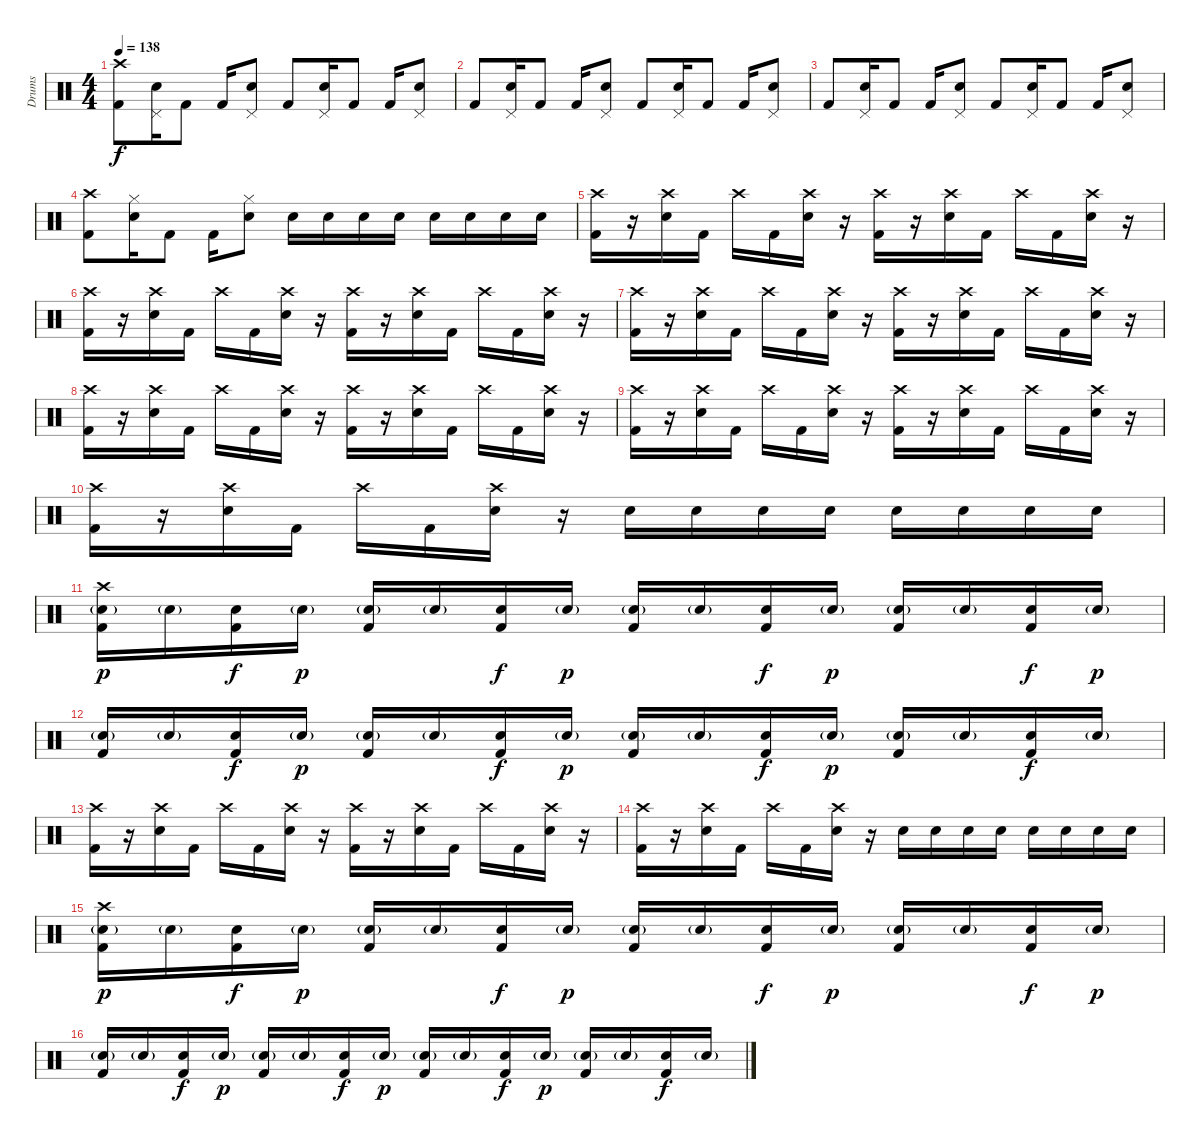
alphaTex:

\track ("Drums" "Drums") {instrument percussion}
\staff {score}
\articulation defaults
\ts (4 4)
\tempo 138
\clef neutral
\ks c
("Crash high (hit)" "Kick (hit) 2").8{dy f} ("Pedal Hi-Hat (hit)" "Snare (hit) 2").16 "Kick (hit) 2".8 "Kick (hit) 2".16 ("Pedal Hi-Hat (hit)" "Snare (hit) 2").8 "Kick (hit) 2".8 ("Pedal Hi-Hat (hit)" "Snare (hit) 2").16 "Kick (hit) 2".8 "Kick (hit) 2".16 ("Pedal Hi-Hat (hit)" "Snare (hit) 2").8 |
"Kick (hit) 2".8 ("Pedal Hi-Hat (hit)" "Snare (hit) 2").16 "Kick (hit) 2".8 "Kick (hit) 2".16 ("Pedal Hi-Hat (hit)" "Snare (hit) 2").8 "Kick (hit) 2".8 ("Pedal Hi-Hat (hit)" "Snare (hit) 2").16 "Kick (hit) 2".8 "Kick (hit) 2".16 ("Pedal Hi-Hat (hit)" "Snare (hit) 2").8 |
"Kick (hit) 2".8 ("Pedal Hi-Hat (hit)" "Snare (hit) 2").16 "Kick (hit) 2".8 "Kick (hit) 2".16 ("Pedal Hi-Hat (hit)" "Snare (hit) 2").8 "Kick (hit) 2".8 ("Pedal Hi-Hat (hit)" "Snare (hit) 2").16 "Kick (hit) 2".8 "Kick (hit) 2".16 ("Pedal Hi-Hat (hit)" "Snare (hit) 2").8 |
("Crash high (hit)" "Kick (hit) 2").8 ("Hi-Hat (closed)" "Snare (hit) 2").16 "Kick (hit) 2".8 "Kick (hit) 2".16 ("Hi-Hat (closed)" "Snare (hit) 2").8 "Snare (hit) 2".16 "Snare (hit) 2".16 "Snare (hit) 2".16 "Snare (hit) 2".16 "Snare (hit) 2".16 "Snare (hit) 2".16 "Snare (hit) 2".16 "Snare (hit) 2".16 |
("Crash high (hit)" "Kick (hit) 2").16 r.16 ("Crash high (hit)" "Snare (hit) 2").16 "Kick (hit) 2".16 "Crash high (hit)".16 "Kick (hit) 2".16 ("Crash high (hit)" "Snare (hit) 2").16 r.16 ("Crash high (hit)" "Kick (hit) 2").16 r.16 ("Crash high (hit)" "Snare (hit) 2").16 "Kick (hit) 2".16 "Crash high (hit)".16 "Kick (hit) 2".16 ("Crash high (hit)" "Snare (hit) 2").16 r.16 |
("Crash high (hit)" "Kick (hit) 2").16 r.16 ("Crash high (hit)" "Snare (hit) 2").16 "Kick (hit) 2".16 "Crash high (hit)".16 "Kick (hit) 2".16 ("Crash high (hit)" "Snare (hit) 2").16 r.16 ("Crash high (hit)" "Kick (hit) 2").16 r.16 ("Crash high (hit)" "Snare (hit) 2").16 "Kick (hit) 2".16 "Crash high (hit)".16 "Kick (hit) 2".16 ("Crash high (hit)" "Snare (hit) 2").16 r.16 |
("Crash high (hit)" "Kick (hit) 2").16 r.16 ("Crash high (hit)" "Snare (hit) 2").16 "Kick (hit) 2".16 "Crash high (hit)".16 "Kick (hit) 2".16 ("Crash high (hit)" "Snare (hit) 2").16 r.16 ("Crash high (hit)" "Kick (hit) 2").16 r.16 ("Crash high (hit)" "Snare (hit) 2").16 "Kick (hit) 2".16 "Crash high (hit)".16 "Kick (hit) 2".16 ("Crash high (hit)" "Snare (hit) 2").16 r.16 |
("Crash high (hit)" "Kick (hit) 2").16 r.16 ("Crash high (hit)" "Snare (hit) 2").16 "Kick (hit) 2".16 "Crash high (hit)".16 "Kick (hit) 2".16 ("Crash high (hit)" "Snare (hit) 2").16 r.16 ("Crash high (hit)" "Kick (hit) 2").16 r.16 ("Crash high (hit)" "Snare (hit) 2").16 "Kick (hit) 2".16 "Crash high (hit)".16 "Kick (hit) 2".16 ("Crash high (hit)" "Snare (hit) 2").16 r.16 |
("Crash high (hit)" "Kick (hit) 2").16 r.16 ("Crash high (hit)" "Snare (hit) 2").16 "Kick (hit) 2".16 "Crash high (hit)".16 "Kick (hit) 2".16 ("Crash high (hit)" "Snare (hit) 2").16 r.16 ("Crash high (hit)" "Kick (hit) 2").16 r.16 ("Crash high (hit)" "Snare (hit) 2").16 "Kick (hit) 2".16 "Crash high (hit)".16 "Kick (hit) 2".16 ("Crash high (hit)" "Snare (hit) 2").16 r.16 |
("Crash high (hit)" "Kick (hit) 2").16 r.16 ("Crash high (hit)" "Snare (hit) 2").16 "Kick (hit) 2".16 "Crash high (hit)".16 "Kick (hit) 2".16 ("Crash high (hit)" "Snare (hit) 2").16 r.16 "Snare (hit) 2".16 "Snare (hit) 2".16 "Snare (hit) 2".16 "Snare (hit) 2".16 "Snare (hit) 2".16 "Snare (hit) 2".16 "Snare (hit) 2".16 "Snare (hit) 2".16 |
("Crash high (hit)" "Snare (hit) 2"{g} "Kick (hit) 2").16{dy p} "Snare (hit) 2"{g}.16 ("Snare (hit) 2" "Kick (hit) 2").16{dy f} "Snare (hit) 2"{g}.16{dy p} ("Snare (hit) 2"{g} "Kick (hit) 2").16 "Snare (hit) 2"{g}.16 ("Snare (hit) 2" "Kick (hit) 2").16{dy f} "Snare (hit) 2"{g}.16{dy p} ("Snare (hit) 2"{g} "Kick (hit) 2").16 "Snare (hit) 2"{g}.16 ("Snare (hit) 2" "Kick (hit) 2").16{dy f} "Snare (hit) 2"{g}.16{dy p} ("Snare (hit) 2"{g} "Kick (hit) 2").16 "Snare (hit) 2"{g}.16 ("Snare (hit) 2" "Kick (hit) 2").16{dy f} "Snare (hit) 2"{g}.16{dy p} |
("Snare (hit) 2"{g} "Kick (hit) 2").16 "Snare (hit) 2"{g}.16 ("Snare (hit) 2" "Kick (hit) 2").16{dy f} "Snare (hit) 2"{g}.16{dy p} ("Snare (hit) 2"{g} "Kick (hit) 2").16 "Snare (hit) 2"{g}.16 ("Snare (hit) 2" "Kick (hit) 2").16{dy f} "Snare (hit) 2"{g}.16{dy p} ("Snare (hit) 2"{g} "Kick (hit) 2").16 "Snare (hit) 2"{g}.16 ("Snare (hit) 2" "Kick (hit) 2").16{dy f} "Snare (hit) 2"{g}.16{dy p} ("Snare (hit) 2"{g} "Kick (hit) 2").16 "Snare (hit) 2"{g}.16 ("Snare (hit) 2" "Kick (hit) 2").16{dy f} "Snare (hit) 2"{g}.16 |
("Crash high (hit)" "Kick (hit) 2").16 r.16 ("Crash high (hit)" "Snare (hit) 2").16 "Kick (hit) 2".16 "Crash high (hit)".16 "Kick (hit) 2".16 ("Crash high (hit)" "Snare (hit) 2").16 r.16 ("Crash high (hit)" "Kick (hit) 2").16 r.16 ("Crash high (hit)" "Snare (hit) 2").16 "Kick (hit) 2".16 "Crash high (hit)".16 "Kick (hit) 2".16 ("Crash high (hit)" "Snare (hit) 2").16 r.16 |
("Crash high (hit)" "Kick (hit) 2").16 r.16 ("Crash high (hit)" "Snare (hit) 2").16 "Kick (hit) 2".16 "Crash high (hit)".16 "Kick (hit) 2".16 ("Crash high (hit)" "Snare (hit) 2").16 r.16 "Snare (hit) 2".16 "Snare (hit) 2".16 "Snare (hit) 2".16 "Snare (hit) 2".16 "Snare (hit) 2".16 "Snare (hit) 2".16 "Snare (hit) 2".16 "Snare (hit) 2".16 |
("Crash high (hit)" "Snare (hit) 2"{g} "Kick (hit) 2").16{dy p} "Snare (hit) 2"{g}.16 ("Snare (hit) 2" "Kick (hit) 2").16{dy f} "Snare (hit) 2"{g}.16{dy p} ("Snare (hit) 2"{g} "Kick (hit) 2").16 "Snare (hit) 2"{g}.16 ("Snare (hit) 2" "Kick (hit) 2").16{dy f} "Snare (hit) 2"{g}.16{dy p} ("Snare (hit) 2"{g} "Kick (hit) 2").16 "Snare (hit) 2"{g}.16 ("Snare (hit) 2" "Kick (hit) 2").16{dy f} "Snare (hit) 2"{g}.16{dy p} ("Snare (hit) 2"{g} "Kick (hit) 2").16 "Snare (hit) 2"{g}.16 ("Snare (hit) 2" "Kick (hit) 2").16{dy f} "Snare (hit) 2"{g}.16{dy p} |
("Snare (hit) 2"{g} "Kick (hit) 2").16 "Snare (hit) 2"{g}.16 ("Snare (hit) 2" "Kick (hit) 2").16{dy f} "Snare (hit) 2"{g}.16{dy p} ("Snare (hit) 2"{g} "Kick (hit) 2").16 "Snare (hit) 2"{g}.16 ("Snare (hit) 2" "Kick (hit) 2").16{dy f} "Snare (hit) 2"{g}.16{dy p} ("Snare (hit) 2"{g} "Kick (hit) 2").16 "Snare (hit) 2"{g}.16 ("Snare (hit) 2" "Kick (hit) 2").16{dy f} "Snare (hit) 2"{g}.16{dy p} ("Snare (hit) 2"{g} "Kick (hit) 2").16 "Snare (hit) 2"{g}.16 ("Snare (hit) 2" "Kick (hit) 2").16{dy f} "Snare (hit) 2"{g}.16
